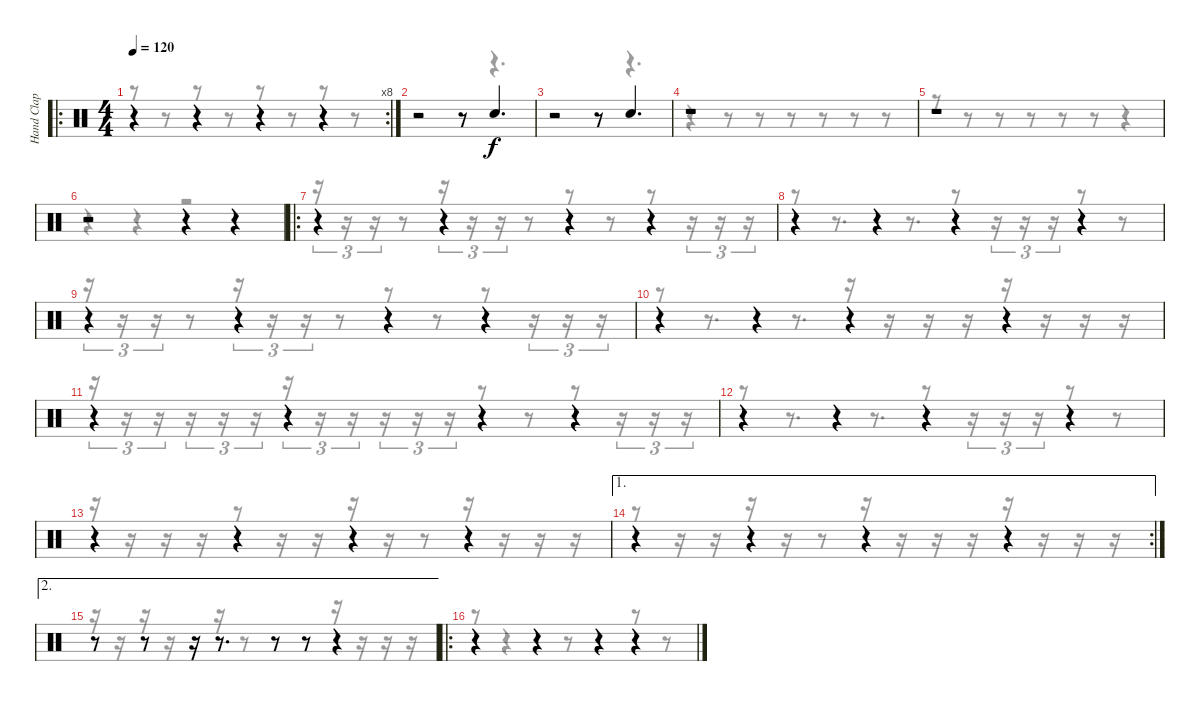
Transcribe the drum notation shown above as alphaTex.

\track ("Hand Clap" "Hand Clap") {instrument percussion}
\staff {score}
\articulation defaults
\voice
\ro
\rc 8
\ts (4 4)
\tempo 120
\clef neutral
\ks c
r.4{dy f} r.4 r.4 r.4 |
r.2 r.8 "Hand Clap (hit)".4{d} |
r.2 r.8 "Hand Clap (hit)".4{d} |
r.1 |
r.1 |
r.2 r.4 r.4 |
\ro
r.4 r.4 r.4 r.4 |
r.4 r.4 r.4 r.4 |
r.4 r.4 r.4 r.4 |
r.4 r.4 r.4 r.4 |
r.4 r.4 r.4 r.4 |
r.4 r.4 r.4 r.4 |
r.4 r.4 r.4 r.4 |
\ae 1
\rc 2
r.4 r.4 r.4 r.4 |
\ae 2
r.8 r.8 r.16 r.8{d} r.8 r.8 r.4 |
\ro
r.4 r.4 r.4 r.4
\voice
\clef neutral
\ottava regular
\simile none
\ks c
r.8{dy f} r.8 r.8 r.8 r.8 r.8 r.8 r.8 |
r.2 r.8 r.4{d} |
r.2 r.8 r.4{d} |
r.4 r.8 r.8 r.8 r.8 r.8 r.8 |
r.8 r.8 r.8 r.8 r.8 r.8 r.4 |
r.4 r.4 r.2 |
r.16{tu (3 2)} r.16{tu (3 2)} r.16{tu (3 2)} r.8 r.16{tu (3 2)} r.16{tu (3 2)} r.16{tu (3 2)} r.8 r.8 r.8 r.8 r.16{tu (3 2)} r.16{tu (3 2)} r.16{tu (3 2)} |
r.8 r.8{d} r.8{d} r.8 r.16{tu (3 2)} r.16{tu (3 2)} r.16{tu (3 2)} r.8 r.8 |
r.16{tu (3 2)} r.16{tu (3 2)} r.16{tu (3 2)} r.8 r.16{tu (3 2)} r.16{tu (3 2)} r.16{tu (3 2)} r.8 r.8 r.8 r.8 r.16{tu (3 2)} r.16{tu (3 2)} r.16{tu (3 2)} |
r.8 r.8{d} r.8{d} r.16 r.16 r.16 r.16 r.16 r.16 r.16 r.16 |
r.16{tu (3 2)} r.16{tu (3 2)} r.16{tu (3 2)} r.16{tu (3 2)} r.16{tu (3 2)} r.16{tu (3 2)} r.16{tu (3 2)} r.16{tu (3 2)} r.16{tu (3 2)} r.16{tu (3 2)} r.16{tu (3 2)} r.16{tu (3 2)} r.8 r.8 r.8 r.16{tu (3 2)} r.16{tu (3 2)} r.16{tu (3 2)} |
r.8 r.8{d} r.8{d} r.8 r.16{tu (3 2)} r.16{tu (3 2)} r.16{tu (3 2)} r.8 r.8 |
r.16 r.16 r.16 r.16 r.8 r.16 r.16 r.16 r.16 r.8 r.16 r.16 r.16 r.16 |
r.8 r.16 r.16 r.16 r.16 r.8 r.16 r.16 r.16 r.16 r.16 r.16 r.16 r.16 |
r.16 r.16 r.16 r.16 r.16 r.16 r.8 r.8 r.8 r.16 r.16 r.16 r.16 |
r.8 r.4 r.8 r.4 r.8 r.8
